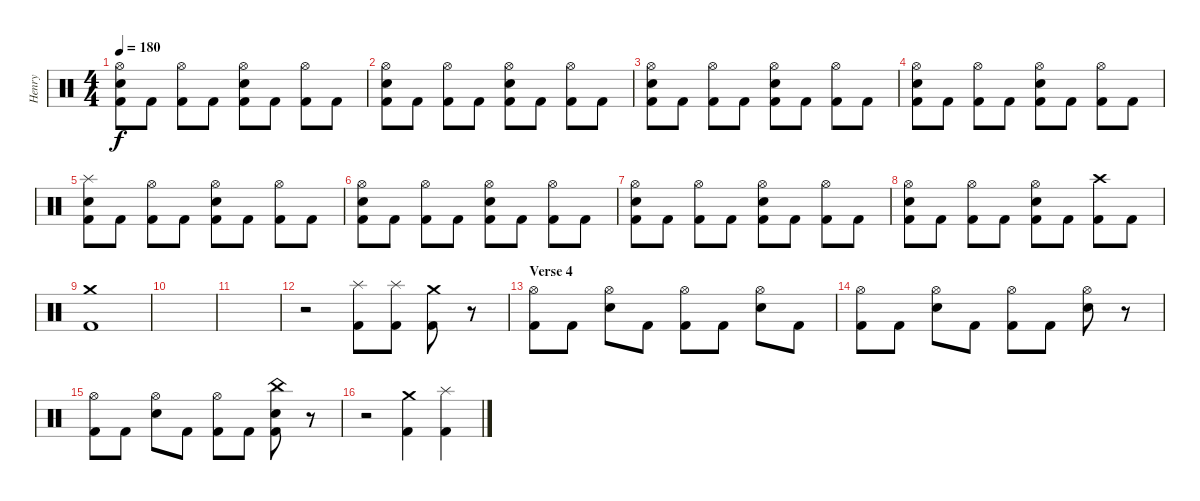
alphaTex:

\track ("Henry" "Henry") {instrument percussion}
\staff {score}
\articulation defaults
\ts (4 4)
\tempo 180
\clef neutral
\ks c
("Hi-Hat (open)" "Snare (hit) 2" "Kick (hit) 2").8{dy f} "Kick (hit) 2".8 ("Hi-Hat (open)" "Kick (hit) 2").8 "Kick (hit) 2".8 ("Hi-Hat (open)" "Snare (hit) 2" "Kick (hit) 2").8 "Kick (hit) 2".8 ("Hi-Hat (open)" "Kick (hit) 2").8 "Kick (hit) 2".8 |
("Hi-Hat (open)" "Snare (hit) 2" "Kick (hit) 2").8 "Kick (hit) 2".8 ("Hi-Hat (open)" "Kick (hit) 2").8 "Kick (hit) 2".8 ("Hi-Hat (open)" "Snare (hit) 2" "Kick (hit) 2").8 "Kick (hit) 2".8 ("Hi-Hat (open)" "Kick (hit) 2").8 "Kick (hit) 2".8 |
("Hi-Hat (open)" "Snare (hit) 2" "Kick (hit) 2").8 "Kick (hit) 2".8 ("Hi-Hat (open)" "Kick (hit) 2").8 "Kick (hit) 2".8 ("Hi-Hat (open)" "Snare (hit) 2" "Kick (hit) 2").8 "Kick (hit) 2".8 ("Hi-Hat (open)" "Kick (hit) 2").8 "Kick (hit) 2".8 |
("Hi-Hat (open)" "Snare (hit) 2" "Kick (hit) 2").8 "Kick (hit) 2".8 ("Hi-Hat (open)" "Kick (hit) 2").8 "Kick (hit) 2".8 ("Hi-Hat (open)" "Snare (hit) 2" "Kick (hit) 2").8 "Kick (hit) 2".8 ("Hi-Hat (open)" "Kick (hit) 2").8 "Kick (hit) 2".8 |
("Splash (hit)" "Snare (hit) 2" "Kick (hit) 2").8 "Kick (hit) 2".8 ("Hi-Hat (open)" "Kick (hit) 2").8 "Kick (hit) 2".8 ("Hi-Hat (open)" "Snare (hit) 2" "Kick (hit) 2").8 "Kick (hit) 2".8 ("Hi-Hat (open)" "Kick (hit) 2").8 "Kick (hit) 2".8 |
("Hi-Hat (open)" "Snare (hit) 2" "Kick (hit) 2").8 "Kick (hit) 2".8 ("Hi-Hat (open)" "Kick (hit) 2").8 "Kick (hit) 2".8 ("Hi-Hat (open)" "Snare (hit) 2" "Kick (hit) 2").8 "Kick (hit) 2".8 ("Hi-Hat (open)" "Kick (hit) 2").8 "Kick (hit) 2".8 |
("Hi-Hat (open)" "Snare (hit) 2" "Kick (hit) 2").8 "Kick (hit) 2".8 ("Hi-Hat (open)" "Kick (hit) 2").8 "Kick (hit) 2".8 ("Hi-Hat (open)" "Snare (hit) 2" "Kick (hit) 2").8 "Kick (hit) 2".8 ("Hi-Hat (open)" "Kick (hit) 2").8 "Kick (hit) 2".8 |
("Hi-Hat (open)" "Snare (hit) 2" "Kick (hit) 2").8 "Kick (hit) 2".8 ("Hi-Hat (open)" "Kick (hit) 2").8 "Kick (hit) 2".8 ("Hi-Hat (open)" "Snare (hit) 2" "Kick (hit) 2").8 "Kick (hit) 2".8 ("Crash high (hit)" "Kick (hit) 2").8 "Kick (hit) 2".8 |
("Crash medium (hit)" "Kick (hit) 2").1 |
|
|
r.2 ("Splash (hit)" "Kick (hit) 2").8 ("Splash (hit)" "Kick (hit) 2").8 ("Crash medium (hit)" "Kick (hit) 2").8 r.8 |
\section ("" "Verse 4")
("Hi-Hat (open)" "Kick (hit) 2").8 "Kick (hit) 2".8 ("Hi-Hat (open)" "Snare (hit) 2").8 "Kick (hit) 2".8 ("Hi-Hat (open)" "Kick (hit) 2").8 "Kick (hit) 2".8 ("Hi-Hat (open)" "Snare (hit) 2").8 "Kick (hit) 2".8 |
("Hi-Hat (open)" "Kick (hit) 2").8 "Kick (hit) 2".8 ("Hi-Hat (open)" "Snare (hit) 2").8 "Kick (hit) 2".8 ("Hi-Hat (open)" "Kick (hit) 2").8 "Kick (hit) 2".8 ("Hi-Hat (open)" "Snare (hit) 2").8 r.8 |
("Hi-Hat (open)" "Kick (hit) 2").8 "Kick (hit) 2".8 ("Hi-Hat (open)" "Snare (hit) 2").8 "Kick (hit) 2".8 ("Hi-Hat (open)" "Kick (hit) 2").8 "Kick (hit) 2".8 ("China (hit)" "Snare (hit) 2" "Kick (hit) 2").8 r.8 |
r.2 ("Crash medium (hit)" "Kick (hit) 2").4 ("Splash (hit)" "Kick (hit) 2").4
